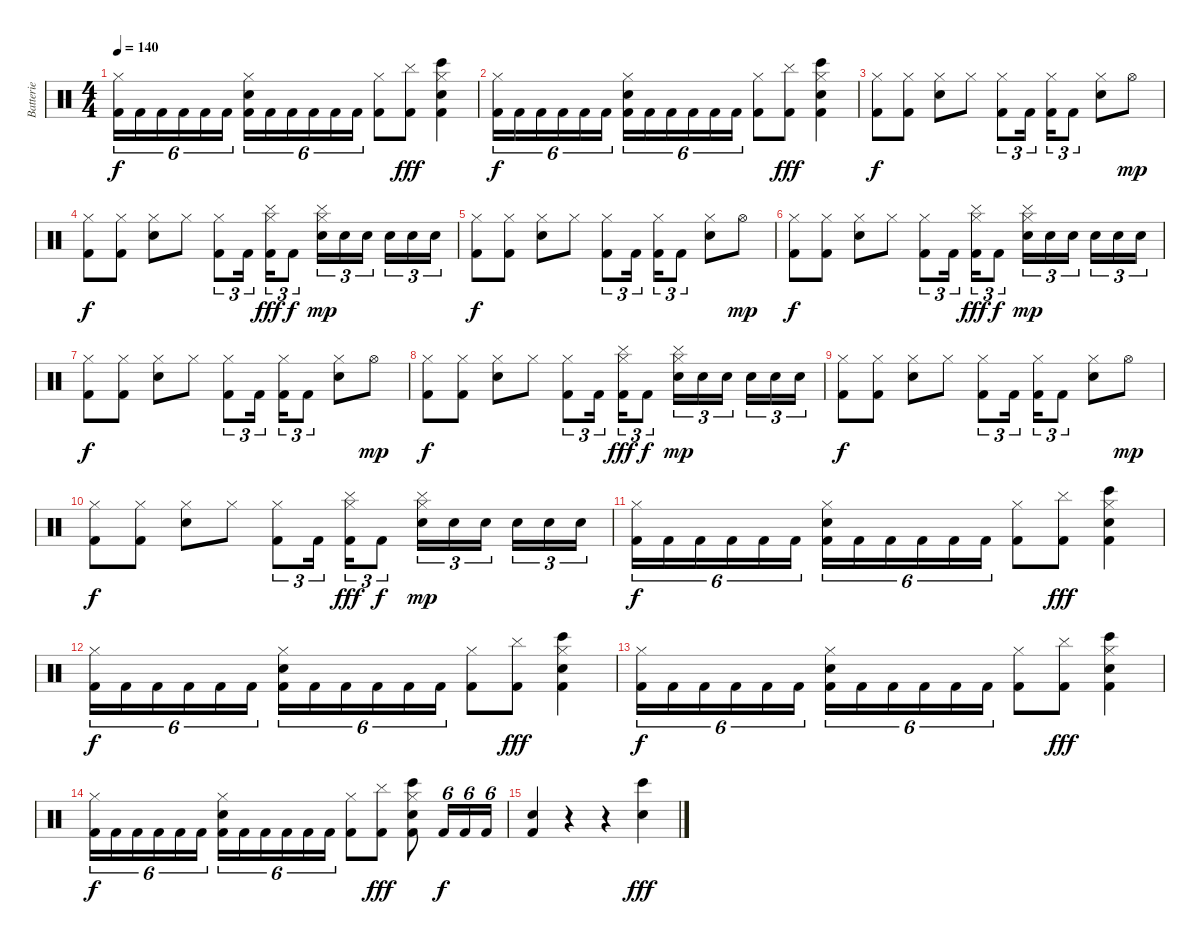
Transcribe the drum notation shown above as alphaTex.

\track ("Batterie" "Batterie") {instrument percussion}
\staff {score}
\articulation defaults
\ts (4 4)
\tempo 140
\clef neutral
\ks c
("Hi-Hat (closed)" "Kick (hit) 2").16{tu (6 4) dy f} "Kick (hit) 2".16{tu (6 4)} "Kick (hit) 2".16{tu (6 4)} "Kick (hit) 2".16{tu (6 4)} "Kick (hit) 2".16{tu (6 4)} "Kick (hit) 2".16{tu (6 4)} ("Hi-Hat (closed)" "Electric Snare (hit)" "Kick (hit) 2").16{tu (6 4)} "Kick (hit) 2".16{tu (6 4)} "Kick (hit) 2".16{tu (6 4)} "Kick (hit) 2".16{tu (6 4)} "Kick (hit) 2".16{tu (6 4)} "Kick (hit) 2".16{tu (6 4)} ("Hi-Hat (closed)" "Kick (hit) 2").8 ("Cymbal (hit)" "Kick (hit) 2").8{dy fff} ("Hi-Hat (closed)" "Electric Snare (hit)" "Bongo High (hit)" "Kick (hit) 2").4 |
("Hi-Hat (closed)" "Kick (hit) 2").16{tu (6 4) dy f} "Kick (hit) 2".16{tu (6 4)} "Kick (hit) 2".16{tu (6 4)} "Kick (hit) 2".16{tu (6 4)} "Kick (hit) 2".16{tu (6 4)} "Kick (hit) 2".16{tu (6 4)} ("Hi-Hat (closed)" "Electric Snare (hit)" "Kick (hit) 2").16{tu (6 4)} "Kick (hit) 2".16{tu (6 4)} "Kick (hit) 2".16{tu (6 4)} "Kick (hit) 2".16{tu (6 4)} "Kick (hit) 2".16{tu (6 4)} "Kick (hit) 2".16{tu (6 4)} ("Hi-Hat (closed)" "Kick (hit) 2").8 ("Cymbal (hit)" "Kick (hit) 2").8{dy fff} ("Hi-Hat (closed)" "Electric Snare (hit)" "Bongo High (hit)" "Kick (hit) 2").4 |
("Hi-Hat (closed)" "Kick (hit) 2").8{dy f} ("Hi-Hat (closed)" "Kick (hit) 2").8 ("Hi-Hat (closed)" "Electric Snare (hit)").8 "Hi-Hat (closed)".8 ("Hi-Hat (closed)" "Kick (hit) 2").8{tu (3 2)} "Kick (hit) 2".16{tu (3 2)} ("Hi-Hat (closed)" "Kick (hit) 2").16{tu (3 2)} "Kick (hit) 2".8{tu (3 2)} ("Hi-Hat (closed)" "Electric Snare (hit)").8 "Hi-Hat (open)".8{dy mp} |
("Hi-Hat (closed)" "Kick (hit) 2").8{dy f} ("Hi-Hat (closed)" "Kick (hit) 2").8 ("Hi-Hat (closed)" "Electric Snare (hit)").8 "Hi-Hat (closed)".8 ("Hi-Hat (closed)" "Kick (hit) 2").8{tu (3 2)} "Kick (hit) 2".16{tu (3 2)} ("Hi-Hat (closed)" "Cymbal (hit)" "Kick (hit) 2").16{tu (3 2) dy fff} "Kick (hit) 2".8{tu (3 2) dy f} ("Hi-Hat (closed)" "Cymbal (hit)" "Electric Snare (hit)").16{tu (3 2) dy mp} "Electric Snare (hit)".16{tu (3 2)} "Electric Snare (hit)".16{tu (3 2)} "Electric Snare (hit)".16{tu (3 2)} "Electric Snare (hit)".16{tu (3 2)} "Electric Snare (hit)".16{tu (3 2)} |
("Hi-Hat (closed)" "Kick (hit) 2").8{dy f} ("Hi-Hat (closed)" "Kick (hit) 2").8 ("Hi-Hat (closed)" "Electric Snare (hit)").8 "Hi-Hat (closed)".8 ("Hi-Hat (closed)" "Kick (hit) 2").8{tu (3 2)} "Kick (hit) 2".16{tu (3 2)} ("Hi-Hat (closed)" "Kick (hit) 2").16{tu (3 2)} "Kick (hit) 2".8{tu (3 2)} ("Hi-Hat (closed)" "Electric Snare (hit)").8 "Hi-Hat (open)".8{dy mp} |
("Hi-Hat (closed)" "Kick (hit) 2").8{dy f} ("Hi-Hat (closed)" "Kick (hit) 2").8 ("Hi-Hat (closed)" "Electric Snare (hit)").8 "Hi-Hat (closed)".8 ("Hi-Hat (closed)" "Kick (hit) 2").8{tu (3 2)} "Kick (hit) 2".16{tu (3 2)} ("Hi-Hat (closed)" "Cymbal (hit)" "Kick (hit) 2").16{tu (3 2) dy fff} "Kick (hit) 2".8{tu (3 2) dy f} ("Hi-Hat (closed)" "Cymbal (hit)" "Electric Snare (hit)").16{tu (3 2) dy mp} "Electric Snare (hit)".16{tu (3 2)} "Electric Snare (hit)".16{tu (3 2)} "Electric Snare (hit)".16{tu (3 2)} "Electric Snare (hit)".16{tu (3 2)} "Electric Snare (hit)".16{tu (3 2)} |
("Hi-Hat (closed)" "Kick (hit) 2").8{dy f} ("Hi-Hat (closed)" "Kick (hit) 2").8 ("Hi-Hat (closed)" "Electric Snare (hit)").8 "Hi-Hat (closed)".8 ("Hi-Hat (closed)" "Kick (hit) 2").8{tu (3 2)} "Kick (hit) 2".16{tu (3 2)} ("Hi-Hat (closed)" "Kick (hit) 2").16{tu (3 2)} "Kick (hit) 2".8{tu (3 2)} ("Hi-Hat (closed)" "Electric Snare (hit)").8 "Hi-Hat (open)".8{dy mp} |
("Hi-Hat (closed)" "Kick (hit) 2").8{dy f} ("Hi-Hat (closed)" "Kick (hit) 2").8 ("Hi-Hat (closed)" "Electric Snare (hit)").8 "Hi-Hat (closed)".8 ("Hi-Hat (closed)" "Kick (hit) 2").8{tu (3 2)} "Kick (hit) 2".16{tu (3 2)} ("Hi-Hat (closed)" "Cymbal (hit)" "Kick (hit) 2").16{tu (3 2) dy fff} "Kick (hit) 2".8{tu (3 2) dy f} ("Hi-Hat (closed)" "Cymbal (hit)" "Electric Snare (hit)").16{tu (3 2) dy mp} "Electric Snare (hit)".16{tu (3 2)} "Electric Snare (hit)".16{tu (3 2)} "Electric Snare (hit)".16{tu (3 2)} "Electric Snare (hit)".16{tu (3 2)} "Electric Snare (hit)".16{tu (3 2)} |
("Hi-Hat (closed)" "Kick (hit) 2").8{dy f} ("Hi-Hat (closed)" "Kick (hit) 2").8 ("Hi-Hat (closed)" "Electric Snare (hit)").8 "Hi-Hat (closed)".8 ("Hi-Hat (closed)" "Kick (hit) 2").8{tu (3 2)} "Kick (hit) 2".16{tu (3 2)} ("Hi-Hat (closed)" "Kick (hit) 2").16{tu (3 2)} "Kick (hit) 2".8{tu (3 2)} ("Hi-Hat (closed)" "Electric Snare (hit)").8 "Hi-Hat (open)".8{dy mp} |
("Hi-Hat (closed)" "Kick (hit) 2").8{dy f} ("Hi-Hat (closed)" "Kick (hit) 2").8 ("Hi-Hat (closed)" "Electric Snare (hit)").8 "Hi-Hat (closed)".8 ("Hi-Hat (closed)" "Kick (hit) 2").8{tu (3 2)} "Kick (hit) 2".16{tu (3 2)} ("Hi-Hat (closed)" "Cymbal (hit)" "Kick (hit) 2").16{tu (3 2) dy fff} "Kick (hit) 2".8{tu (3 2) dy f} ("Hi-Hat (closed)" "Cymbal (hit)" "Electric Snare (hit)").16{tu (3 2) dy mp} "Electric Snare (hit)".16{tu (3 2)} "Electric Snare (hit)".16{tu (3 2)} "Electric Snare (hit)".16{tu (3 2)} "Electric Snare (hit)".16{tu (3 2)} "Electric Snare (hit)".16{tu (3 2)} |
("Hi-Hat (closed)" "Kick (hit) 2").16{tu (6 4) dy f} "Kick (hit) 2".16{tu (6 4)} "Kick (hit) 2".16{tu (6 4)} "Kick (hit) 2".16{tu (6 4)} "Kick (hit) 2".16{tu (6 4)} "Kick (hit) 2".16{tu (6 4)} ("Hi-Hat (closed)" "Electric Snare (hit)" "Kick (hit) 2").16{tu (6 4)} "Kick (hit) 2".16{tu (6 4)} "Kick (hit) 2".16{tu (6 4)} "Kick (hit) 2".16{tu (6 4)} "Kick (hit) 2".16{tu (6 4)} "Kick (hit) 2".16{tu (6 4)} ("Hi-Hat (closed)" "Kick (hit) 2").8 ("Cymbal (hit)" "Kick (hit) 2").8{dy fff} ("Hi-Hat (closed)" "Electric Snare (hit)" "Bongo High (hit)" "Kick (hit) 2").4 |
("Hi-Hat (closed)" "Kick (hit) 2").16{tu (6 4) dy f} "Kick (hit) 2".16{tu (6 4)} "Kick (hit) 2".16{tu (6 4)} "Kick (hit) 2".16{tu (6 4)} "Kick (hit) 2".16{tu (6 4)} "Kick (hit) 2".16{tu (6 4)} ("Hi-Hat (closed)" "Electric Snare (hit)" "Kick (hit) 2").16{tu (6 4)} "Kick (hit) 2".16{tu (6 4)} "Kick (hit) 2".16{tu (6 4)} "Kick (hit) 2".16{tu (6 4)} "Kick (hit) 2".16{tu (6 4)} "Kick (hit) 2".16{tu (6 4)} ("Hi-Hat (closed)" "Kick (hit) 2").8 ("Cymbal (hit)" "Kick (hit) 2").8{dy fff} ("Hi-Hat (closed)" "Electric Snare (hit)" "Bongo High (hit)" "Kick (hit) 2").4 |
("Hi-Hat (closed)" "Kick (hit) 2").16{tu (6 4) dy f} "Kick (hit) 2".16{tu (6 4)} "Kick (hit) 2".16{tu (6 4)} "Kick (hit) 2".16{tu (6 4)} "Kick (hit) 2".16{tu (6 4)} "Kick (hit) 2".16{tu (6 4)} ("Hi-Hat (closed)" "Electric Snare (hit)" "Kick (hit) 2").16{tu (6 4)} "Kick (hit) 2".16{tu (6 4)} "Kick (hit) 2".16{tu (6 4)} "Kick (hit) 2".16{tu (6 4)} "Kick (hit) 2".16{tu (6 4)} "Kick (hit) 2".16{tu (6 4)} ("Hi-Hat (closed)" "Kick (hit) 2").8 ("Cymbal (hit)" "Kick (hit) 2").8{dy fff} ("Hi-Hat (closed)" "Electric Snare (hit)" "Bongo High (hit)" "Kick (hit) 2").4 |
("Hi-Hat (closed)" "Kick (hit) 2").16{tu (6 4) dy f} "Kick (hit) 2".16{tu (6 4)} "Kick (hit) 2".16{tu (6 4)} "Kick (hit) 2".16{tu (6 4)} "Kick (hit) 2".16{tu (6 4)} "Kick (hit) 2".16{tu (6 4)} ("Hi-Hat (closed)" "Electric Snare (hit)" "Kick (hit) 2").16{tu (6 4)} "Kick (hit) 2".16{tu (6 4)} "Kick (hit) 2".16{tu (6 4)} "Kick (hit) 2".16{tu (6 4)} "Kick (hit) 2".16{tu (6 4)} "Kick (hit) 2".16{tu (6 4)} ("Hi-Hat (closed)" "Kick (hit) 2").8 ("Cymbal (hit)" "Kick (hit) 2").8{dy fff} ("Hi-Hat (closed)" "Electric Snare (hit)" "Bongo High (hit)" "Kick (hit) 2").8 "Kick (hit) 2".16{tu (6 4) dy f} "Kick (hit) 2".16{tu (6 4)} "Kick (hit) 2".16{tu (6 4)} |
("Electric Snare (hit)" "Kick (hit) 2").4 r.4 r.4 ("Bongo High (hit)" "Electric Snare (hit)").4{dy fff}
